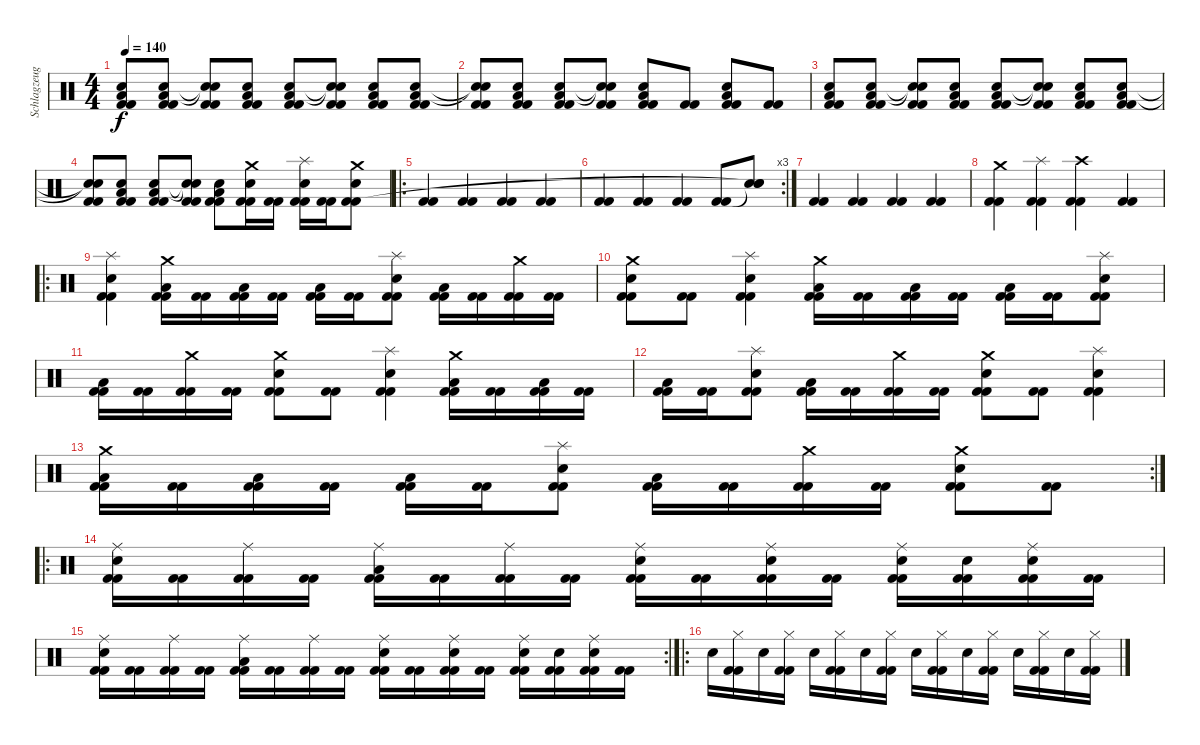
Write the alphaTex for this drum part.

\track ("Schlagzeug" "Schlagzeug") {instrument percussion}
\staff {score}
\articulation defaults
\ts (4 4)
\tempo 140
\clef neutral
\ks c
("Low Tom (hit)" "Snare (hit) 2" "Kick (hit) 2" "Kick (hit) 2").8{dy f} ("Low Tom (hit)" "Snare (hit) 2" "Kick (hit) 2" "Kick (hit) 2").8 ("Snare (hit)"{t} "Snare (hit)"{t} "Kick (hit) 2" "Kick (hit) 2").8 ("Low Tom (hit)" "Snare (hit) 2" "Kick (hit) 2" "Kick (hit) 2").8 ("Low Tom (hit)" "Snare (hit) 2" "Kick (hit) 2" "Kick (hit) 2").8 ("Snare (hit)"{t} "Snare (hit)"{t} "Kick (hit) 2" "Kick (hit) 2").8 ("Low Tom (hit)" "Snare (hit) 2" "Kick (hit) 2" "Kick (hit) 2").8 ("Low Tom (hit)" "Snare (hit) 2" "Kick (hit) 2" "Kick (hit) 2").8 |
("Snare (hit)"{t} "Snare (hit)"{t} "Kick (hit) 2" "Kick (hit) 2").8 ("Low Tom (hit)" "Snare (hit) 2" "Kick (hit) 2" "Kick (hit) 2").8 ("Low Tom (hit)" "Snare (hit) 2" "Kick (hit) 2" "Kick (hit) 2").8 ("Snare (hit)"{t} "Snare (hit)"{t} "Kick (hit) 2" "Kick (hit) 2").8 ("Low Tom (hit)" "Snare (hit) 2" "Kick (hit) 2" "Kick (hit) 2").8 ("Kick (hit) 2" "Kick (hit) 2").8 ("Low Tom (hit)" "Snare (hit) 2" "Kick (hit) 2" "Kick (hit) 2").8 ("Kick (hit) 2" "Kick (hit) 2").8 |
("Low Tom (hit)" "Snare (hit) 2" "Kick (hit) 2" "Kick (hit) 2").8 ("Low Tom (hit)" "Snare (hit) 2" "Kick (hit) 2" "Kick (hit) 2").8 ("Snare (hit)"{t} "Snare (hit)"{t} "Kick (hit) 2" "Kick (hit) 2").8 ("Low Tom (hit)" "Snare (hit) 2" "Kick (hit) 2" "Kick (hit) 2").8 ("Low Tom (hit)" "Snare (hit) 2" "Kick (hit) 2" "Kick (hit) 2").8 ("Snare (hit)"{t} "Snare (hit)"{t} "Kick (hit) 2" "Kick (hit) 2").8 ("Low Tom (hit)" "Snare (hit) 2" "Kick (hit) 2" "Kick (hit) 2").8 ("Low Tom (hit)" "Snare (hit) 2" "Kick (hit) 2" "Kick (hit) 2").8 |
("Snare (hit)"{t} "Snare (hit)"{t} "Kick (hit) 2" "Kick (hit) 2").8 ("Low Tom (hit)" "Snare (hit) 2" "Kick (hit) 2" "Kick (hit) 2").8 ("Low Tom (hit)" "Snare (hit) 2" "Kick (hit) 2" "Kick (hit) 2").8 ("Snare (hit)"{t} "Snare (hit)"{t} "Kick (hit) 2" "Kick (hit) 2").8 ("Low Tom (hit)" "Snare (hit) 2" "Kick (hit) 2" "Kick (hit) 2").8 ("Crash medium (hit)" "Snare (hit) 2" "Kick (hit) 2" "Kick (hit) 2").16 ("Kick (hit) 2" "Kick (hit) 2").16 ("Splash (hit)" "Snare (hit) 2" "Kick (hit) 2" "Kick (hit) 2").16 ("Kick (hit) 2" "Kick (hit) 2").16 ("Crash medium (hit)" "Snare (hit) 2" "Kick (hit) 2" "Kick (hit) 2").8 |
\ro
("Kick (hit) 2" "Kick (hit) 2").4 ("Kick (hit) 2" "Kick (hit) 2").4 ("Kick (hit) 2" "Kick (hit) 2").4 ("Kick (hit) 2" "Kick (hit) 2").4 |
\rc 3
("Kick (hit) 2" "Kick (hit) 2").4 ("Kick (hit) 2" "Kick (hit) 2").4 ("Kick (hit) 2" "Kick (hit) 2").4 ("Kick (hit) 2" "Kick (hit) 2").8 ("Snare (hit) 2" "Snare (hit)"{t} "Snare (hit)"{t}).8 |
("Kick (hit) 2" "Kick (hit) 2").4 ("Kick (hit) 2" "Kick (hit) 2").4 ("Kick (hit) 2" "Kick (hit) 2").4 ("Kick (hit) 2" "Kick (hit) 2").4 |
("Crash medium (hit)" "Kick (hit) 2" "Kick (hit) 2").4 ("Splash (hit)" "Kick (hit) 2" "Kick (hit) 2").4 ("Crash high (hit)" "Kick (hit) 2" "Kick (hit) 2").4 ("Kick (hit) 2" "Kick (hit) 2").4 |
\ro
("Splash (hit)" "Snare (hit) 2" "Kick (hit) 2" "Kick (hit) 2").4 ("Crash medium (hit)" "Low Tom (hit)" "Kick (hit) 2" "Kick (hit) 2").16 ("Kick (hit) 2" "Kick (hit) 2").16 ("Low Tom (hit)" "Kick (hit) 2" "Kick (hit) 2").16 ("Kick (hit) 2" "Kick (hit) 2").16 ("Low Tom (hit)" "Kick (hit) 2" "Kick (hit) 2").16 ("Kick (hit) 2" "Kick (hit) 2").16 ("Splash (hit)" "Snare (hit) 2" "Kick (hit) 2" "Kick (hit) 2").8 ("Low Tom (hit)" "Kick (hit) 2" "Kick (hit) 2").16 ("Kick (hit) 2" "Kick (hit) 2").16 ("Crash medium (hit)" "Kick (hit) 2" "Kick (hit) 2").16 ("Kick (hit) 2" "Kick (hit) 2").16 |
("Crash medium (hit)" "Snare (hit) 2" "Kick (hit) 2" "Kick (hit) 2").8 ("Kick (hit) 2" "Kick (hit) 2").8 ("Splash (hit)" "Snare (hit) 2" "Kick (hit) 2" "Kick (hit) 2").4 ("Crash medium (hit)" "Low Tom (hit)" "Kick (hit) 2" "Kick (hit) 2").16 ("Kick (hit) 2" "Kick (hit) 2").16 ("Low Tom (hit)" "Kick (hit) 2" "Kick (hit) 2").16 ("Kick (hit) 2" "Kick (hit) 2").16 ("Low Tom (hit)" "Kick (hit) 2" "Kick (hit) 2").16 ("Kick (hit) 2" "Kick (hit) 2").16 ("Splash (hit)" "Snare (hit) 2" "Kick (hit) 2" "Kick (hit) 2").8 |
("Low Tom (hit)" "Kick (hit) 2" "Kick (hit) 2").16 ("Kick (hit) 2" "Kick (hit) 2").16 ("Crash medium (hit)" "Kick (hit) 2" "Kick (hit) 2").16 ("Kick (hit) 2" "Kick (hit) 2").16 ("Crash medium (hit)" "Snare (hit) 2" "Kick (hit) 2" "Kick (hit) 2").8 ("Kick (hit) 2" "Kick (hit) 2").8 ("Splash (hit)" "Snare (hit) 2" "Kick (hit) 2" "Kick (hit) 2").4 ("Crash medium (hit)" "Low Tom (hit)" "Kick (hit) 2" "Kick (hit) 2").16 ("Kick (hit) 2" "Kick (hit) 2").16 ("Low Tom (hit)" "Kick (hit) 2" "Kick (hit) 2").16 ("Kick (hit) 2" "Kick (hit) 2").16 |
("Low Tom (hit)" "Kick (hit) 2" "Kick (hit) 2").16 ("Kick (hit) 2" "Kick (hit) 2").16 ("Splash (hit)" "Snare (hit) 2" "Kick (hit) 2" "Kick (hit) 2").8 ("Low Tom (hit)" "Kick (hit) 2" "Kick (hit) 2").16 ("Kick (hit) 2" "Kick (hit) 2").16 ("Crash medium (hit)" "Kick (hit) 2" "Kick (hit) 2").16 ("Kick (hit) 2" "Kick (hit) 2").16 ("Crash medium (hit)" "Snare (hit) 2" "Kick (hit) 2" "Kick (hit) 2").8 ("Kick (hit) 2" "Kick (hit) 2").8 ("Splash (hit)" "Snare (hit) 2" "Kick (hit) 2" "Kick (hit) 2").4 |
\rc 2
("Crash medium (hit)" "Low Tom (hit)" "Kick (hit) 2" "Kick (hit) 2").16 ("Kick (hit) 2" "Kick (hit) 2").16 ("Low Tom (hit)" "Kick (hit) 2" "Kick (hit) 2").16 ("Kick (hit) 2" "Kick (hit) 2").16 ("Low Tom (hit)" "Kick (hit) 2" "Kick (hit) 2").16 ("Kick (hit) 2" "Kick (hit) 2").16 ("Splash (hit)" "Snare (hit) 2" "Kick (hit) 2" "Kick (hit) 2").8 ("Low Tom (hit)" "Kick (hit) 2" "Kick (hit) 2").16 ("Kick (hit) 2" "Kick (hit) 2").16 ("Crash medium (hit)" "Kick (hit) 2" "Kick (hit) 2").16 ("Kick (hit) 2" "Kick (hit) 2").16 ("Crash medium (hit)" "Snare (hit) 2" "Kick (hit) 2" "Kick (hit) 2").8 ("Kick (hit) 2" "Kick (hit) 2").8 |
\ro
("Ride (middle)" "Snare (hit) 2" "Kick (hit) 2" "Kick (hit) 2").16 ("Kick (hit) 2" "Kick (hit) 2").16 ("Ride (middle)" "Kick (hit) 2" "Kick (hit) 2").16 ("Kick (hit) 2" "Kick (hit) 2").16 ("Ride (middle)" "Low Tom (hit)" "Kick (hit) 2" "Kick (hit) 2").16 ("Kick (hit) 2" "Kick (hit) 2").16 ("Ride (middle)" "Kick (hit) 2" "Kick (hit) 2").16 ("Kick (hit) 2" "Kick (hit) 2").16 ("Ride (middle)" "Snare (hit) 2" "Kick (hit) 2" "Kick (hit) 2").16 ("Kick (hit) 2" "Kick (hit) 2").16 ("Ride (middle)" "Snare (hit) 2" "Kick (hit) 2" "Kick (hit) 2").16 ("Kick (hit) 2" "Kick (hit) 2").16 ("Ride (middle)" "Snare (hit) 2" "Kick (hit) 2" "Kick (hit) 2").16 ("Snare (hit) 2" "Kick (hit) 2" "Kick (hit) 2").16 ("Ride (middle)" "Snare (hit) 2" "Kick (hit) 2" "Kick (hit) 2").16 ("Kick (hit) 2" "Kick (hit) 2").16 |
\rc 2
("Ride (middle)" "Snare (hit) 2" "Kick (hit) 2" "Kick (hit) 2").16 ("Kick (hit) 2" "Kick (hit) 2").16 ("Ride (middle)" "Kick (hit) 2" "Kick (hit) 2").16 ("Kick (hit) 2" "Kick (hit) 2").16 ("Ride (middle)" "Low Tom (hit)" "Kick (hit) 2" "Kick (hit) 2").16 ("Kick (hit) 2" "Kick (hit) 2").16 ("Ride (middle)" "Kick (hit) 2" "Kick (hit) 2").16 ("Kick (hit) 2" "Kick (hit) 2").16 ("Ride (middle)" "Snare (hit) 2" "Kick (hit) 2" "Kick (hit) 2").16 ("Kick (hit) 2" "Kick (hit) 2").16 ("Ride (middle)" "Snare (hit) 2" "Kick (hit) 2" "Kick (hit) 2").16 ("Kick (hit) 2" "Kick (hit) 2").16 ("Ride (middle)" "Snare (hit) 2" "Kick (hit) 2" "Kick (hit) 2").16 ("Snare (hit) 2" "Kick (hit) 2" "Kick (hit) 2").16 ("Ride (middle)" "Snare (hit) 2" "Kick (hit) 2" "Kick (hit) 2").16 ("Kick (hit) 2" "Kick (hit) 2").16 |
\ro "Snare (hit) 2".16
("Hi-Hat (closed)" "Kick (hit) 2" "Kick (hit) 2").16 "Snare (hit) 2".16 ("Hi-Hat (closed)" "Kick (hit) 2" "Kick (hit) 2").16 "Snare (hit) 2".16 ("Hi-Hat (closed)" "Kick (hit) 2" "Kick (hit) 2").16 "Snare (hit) 2".16 ("Hi-Hat (closed)" "Kick (hit) 2" "Kick (hit) 2").16 "Snare (hit) 2".16 ("Hi-Hat (closed)" "Kick (hit) 2" "Kick (hit) 2").16 "Snare (hit) 2".16 ("Hi-Hat (closed)" "Kick (hit) 2" "Kick (hit) 2").16 "Snare (hit) 2".16 ("Hi-Hat (closed)" "Kick (hit) 2" "Kick (hit) 2").16 "Snare (hit) 2".16 ("Hi-Hat (closed)" "Kick (hit) 2" "Kick (hit) 2").16
